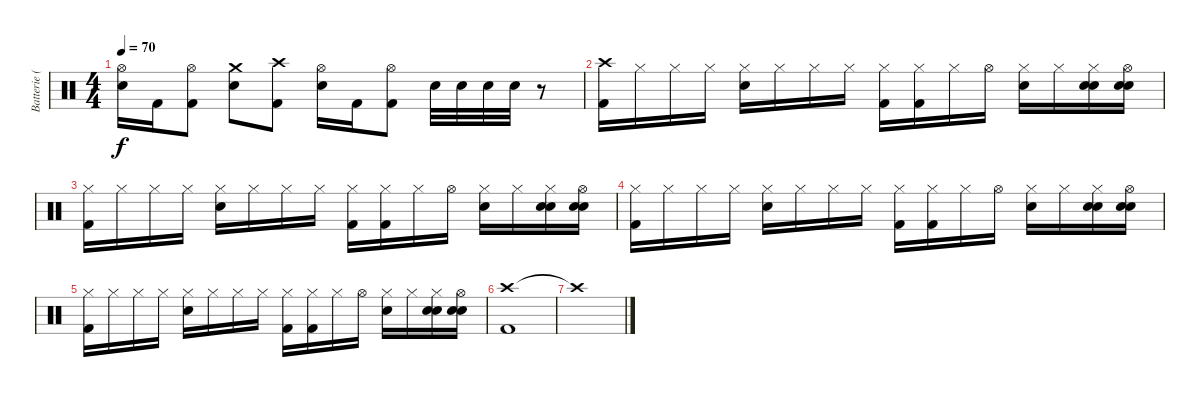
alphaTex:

\track ("Batterie (Racci \"Sketchy\" Shay)" "Batterie (") {instrument percussion}
\staff {score}
\articulation defaults
\ts (4 4)
\tempo 70
\clef neutral
\ks c
("Hi-Hat (open)" "Electric Snare (hit)").16{dy f} "Kick (hit) 2".16 ("Hi-Hat (open)" "Kick (hit) 2").8 ("Crash medium (hit)" "Electric Snare (hit)").8 ("Crash high (hit)" "Kick (hit) 2").8 ("Hi-Hat (open)" "Electric Snare (hit)").16 "Kick (hit) 2".16 ("Hi-Hat (open)" "Kick (hit) 2").8 "Electric Snare (hit)".32 "Electric Snare (hit)".32 "Electric Snare (hit)".32 "Electric Snare (hit)".32 r.8 |
("Crash high (hit)" "Kick (hit) 2").16 "Hi-Hat (closed)".16 "Hi-Hat (closed)".16 "Hi-Hat (closed)".16 ("Hi-Hat (closed)" "Electric Snare (hit)").16 "Hi-Hat (closed)".16 "Hi-Hat (closed)".16 "Hi-Hat (closed)".16 ("Hi-Hat (closed)" "Kick (hit) 2").16 ("Hi-Hat (closed)" "Kick (hit) 2").16 "Hi-Hat (closed)".16 "Hi-Hat (open)".16 ("Hi-Hat (closed)" "Electric Snare (hit)").16 "Hi-Hat (closed)".16 ("Hi-Hat (closed)" "Hand Clap (hit)" "Electric Snare (hit)").16 ("Hi-Hat (open)" "Hand Clap (hit)" "Electric Snare (hit)").16 |
("Hi-Hat (closed)" "Kick (hit) 2").16 "Hi-Hat (closed)".16 "Hi-Hat (closed)".16 "Hi-Hat (closed)".16 ("Hi-Hat (closed)" "Electric Snare (hit)").16 "Hi-Hat (closed)".16 "Hi-Hat (closed)".16 "Hi-Hat (closed)".16 ("Hi-Hat (closed)" "Kick (hit) 2").16 ("Hi-Hat (closed)" "Kick (hit) 2").16 "Hi-Hat (closed)".16 "Hi-Hat (open)".16 ("Hi-Hat (closed)" "Electric Snare (hit)").16 "Hi-Hat (closed)".16 ("Hi-Hat (closed)" "Hand Clap (hit)" "Electric Snare (hit)").16 ("Hi-Hat (open)" "Hand Clap (hit)" "Electric Snare (hit)").16 |
("Hi-Hat (closed)" "Kick (hit) 2").16 "Hi-Hat (closed)".16 "Hi-Hat (closed)".16 "Hi-Hat (closed)".16 ("Hi-Hat (closed)" "Electric Snare (hit)").16 "Hi-Hat (closed)".16 "Hi-Hat (closed)".16 "Hi-Hat (closed)".16 ("Hi-Hat (closed)" "Kick (hit) 2").16 ("Hi-Hat (closed)" "Kick (hit) 2").16 "Hi-Hat (closed)".16 "Hi-Hat (open)".16 ("Hi-Hat (closed)" "Electric Snare (hit)").16 "Hi-Hat (closed)".16 ("Hi-Hat (closed)" "Hand Clap (hit)" "Electric Snare (hit)").16 ("Hi-Hat (open)" "Hand Clap (hit)" "Electric Snare (hit)").16 |
("Hi-Hat (closed)" "Kick (hit) 2").16 "Hi-Hat (closed)".16 "Hi-Hat (closed)".16 "Hi-Hat (closed)".16 ("Hi-Hat (closed)" "Electric Snare (hit)").16 "Hi-Hat (closed)".16 "Hi-Hat (closed)".16 "Hi-Hat (closed)".16 ("Hi-Hat (closed)" "Kick (hit) 2").16 ("Hi-Hat (closed)" "Kick (hit) 2").16 "Hi-Hat (closed)".16 "Hi-Hat (open)".16 ("Hi-Hat (closed)" "Electric Snare (hit)").16 "Hi-Hat (closed)".16 ("Hi-Hat (closed)" "Hand Clap (hit)" "Electric Snare (hit)").16 ("Hi-Hat (open)" "Hand Clap (hit)" "Electric Snare (hit)").16 |
("Crash high (hit)" "Kick (hit) 2").1 |
"Crash high (hit)"{t}.1
